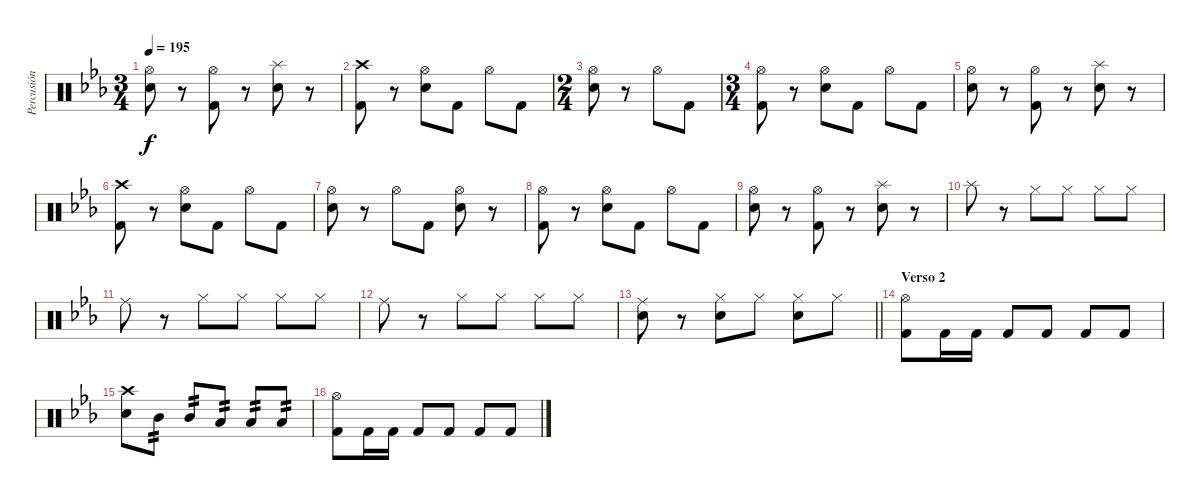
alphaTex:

\track ("Percusión" "Percusión") {instrument percussion}
\staff {score}
\articulation defaults
\ts (3 4)
\tempo 195
\clef neutral
\ks eb
("Hi-Hat (open)" "Snare (hit) 2").8{dy f} r.8 ("Hi-Hat (open)" "Kick (hit) 2").8 r.8 ("Splash (hit)" "Snare (hit) 2").8 r.8 |
("Crash high (hit)" "Kick (hit) 2").8 r.8 ("Hi-Hat (open)" "Snare (hit) 2").8 "Kick (hit) 2".8 "Hi-Hat (open)".8 "Kick (hit) 2".8 |
\ts (2 4)
("Hi-Hat (open)" "Snare (hit) 2").8 r.8 "Hi-Hat (open)".8 "Kick (hit) 2".8 |
\ts (3 4)
("Hi-Hat (open)" "Kick (hit) 2").8 r.8 ("Hi-Hat (open)" "Snare (hit) 2").8 "Kick (hit) 2".8 "Hi-Hat (open)".8 "Kick (hit) 2".8 |
("Hi-Hat (open)" "Snare (hit) 2").8 r.8 ("Hi-Hat (open)" "Kick (hit) 2").8 r.8 ("Splash (hit)" "Snare (hit) 2").8 r.8 |
("Crash high (hit)" "Kick (hit) 2").8 r.8 ("Hi-Hat (open)" "Snare (hit) 2").8 "Kick (hit) 2".8 "Hi-Hat (open)".8 "Kick (hit) 2".8 |
("Hi-Hat (open)" "Snare (hit) 2").8 r.8 "Hi-Hat (open)".8 "Kick (hit) 2".8 ("Hi-Hat (open)" "Snare (hit) 2").8 r.8 |
("Hi-Hat (open)" "Kick (hit) 2").8 r.8 ("Hi-Hat (open)" "Snare (hit) 2").8 "Kick (hit) 2".8 "Hi-Hat (open)".8 "Kick (hit) 2".8 |
("Hi-Hat (open)" "Snare (hit) 2").8 r.8 ("Hi-Hat (open)" "Kick (hit) 2").8 r.8 ("Splash (hit)" "Snare (hit) 2").8 r.8 |
"Splash (hit)".8 r.8 "Hi-Hat (closed)".8 "Hi-Hat (closed)".8 "Hi-Hat (closed)".8 "Hi-Hat (closed)".8 |
"Ride (middle)".8 r.8 "Hi-Hat (closed)".8 "Hi-Hat (closed)".8 "Hi-Hat (closed)".8 "Hi-Hat (closed)".8 |
"Ride (middle)".8 r.8 "Hi-Hat (closed)".8 "Hi-Hat (closed)".8 "Hi-Hat (closed)".8 "Hi-Hat (closed)".8 |
\barLineRight lightlight
("Ride (middle)" "Snare (hit) 2").8 r.8 ("Hi-Hat (closed)" "Snare (hit) 2").8 "Hi-Hat (closed)".8 ("Hi-Hat (closed)" "Snare (hit) 2").8 "Hi-Hat (closed)".8 |
\section ("" "Verso 2")
("Hi-Hat (open)" "Kick (hit) 2").8 "Kick (hit) 2".16 "Kick (hit) 2".16 "Kick (hit) 2".8 "Kick (hit) 2".8 "Kick (hit) 2".8 "Kick (hit) 2".8 |
("Crash high (hit)" "Snare (hit) 2").8 "Mid Tom (hit)".8{tp 2} "Mid Tom (hit)".8{tp 2} "Low Tom (hit)".8{tp 2} "Low Tom (hit)".8{tp 2} "Low Floor Tom (hit)".8{tp 2} |
("Hi-Hat (open)" "Kick (hit) 2").8 "Kick (hit) 2".16 "Kick (hit) 2".16 "Kick (hit) 2".8 "Kick (hit) 2".8 "Kick (hit) 2".8 "Kick (hit) 2".8
